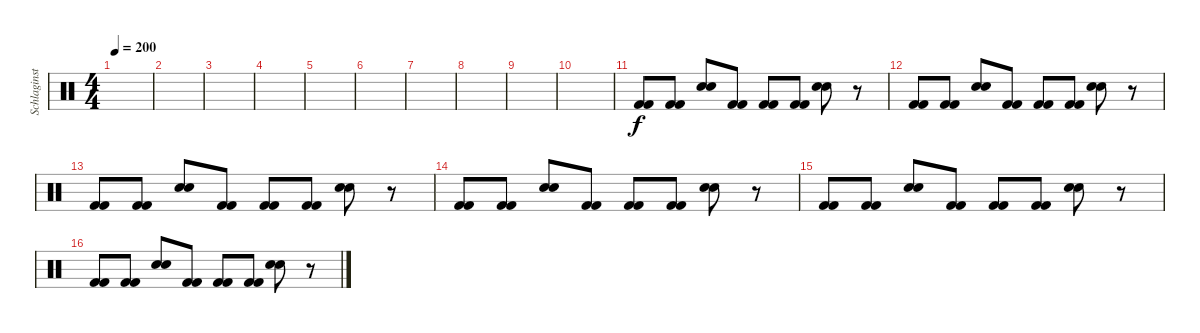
\track ("Schlaginstrumente - Auswahl" "Schlaginst") {instrument percussion}
\staff {score}
\articulation defaults
\ts (4 4)
\tempo 200
\clef neutral
\ks c
|
|
|
|
|
|
|
|
|
|
("Kick (hit) 2" "Kick (hit) 2").8 ("Kick (hit) 2" "Kick (hit) 2").8 ("Electric Snare (hit)" "Electric Snare (hit)").8 ("Kick (hit) 2" "Kick (hit) 2").8 ("Kick (hit) 2" "Kick (hit) 2").8 ("Kick (hit) 2" "Kick (hit) 2").8 ("Electric Snare (hit)" "Electric Snare (hit)").8 r.8 |
("Kick (hit) 2" "Kick (hit) 2").8 ("Kick (hit) 2" "Kick (hit) 2").8 ("Electric Snare (hit)" "Electric Snare (hit)").8 ("Kick (hit) 2" "Kick (hit) 2").8 ("Kick (hit) 2" "Kick (hit) 2").8 ("Kick (hit) 2" "Kick (hit) 2").8 ("Electric Snare (hit)" "Electric Snare (hit)").8 r.8 |
("Kick (hit) 2" "Kick (hit) 2").8 ("Kick (hit) 2" "Kick (hit) 2").8 ("Electric Snare (hit)" "Electric Snare (hit)").8 ("Kick (hit) 2" "Kick (hit) 2").8 ("Kick (hit) 2" "Kick (hit) 2").8 ("Kick (hit) 2" "Kick (hit) 2").8 ("Electric Snare (hit)" "Electric Snare (hit)").8 r.8 |
("Kick (hit) 2" "Kick (hit) 2").8 ("Kick (hit) 2" "Kick (hit) 2").8 ("Electric Snare (hit)" "Electric Snare (hit)").8 ("Kick (hit) 2" "Kick (hit) 2").8 ("Kick (hit) 2" "Kick (hit) 2").8 ("Kick (hit) 2" "Kick (hit) 2").8 ("Electric Snare (hit)" "Electric Snare (hit)").8 r.8 |
("Kick (hit) 2" "Kick (hit) 2").8 ("Kick (hit) 2" "Kick (hit) 2").8 ("Electric Snare (hit)" "Electric Snare (hit)").8 ("Kick (hit) 2" "Kick (hit) 2").8 ("Kick (hit) 2" "Kick (hit) 2").8 ("Kick (hit) 2" "Kick (hit) 2").8 ("Electric Snare (hit)" "Electric Snare (hit)").8 r.8 |
("Kick (hit) 2" "Kick (hit) 2").8 ("Kick (hit) 2" "Kick (hit) 2").8 ("Electric Snare (hit)" "Electric Snare (hit)").8 ("Kick (hit) 2" "Kick (hit) 2").8 ("Kick (hit) 2" "Kick (hit) 2").8 ("Kick (hit) 2" "Kick (hit) 2").8 ("Electric Snare (hit)" "Electric Snare (hit)").8 r.8
